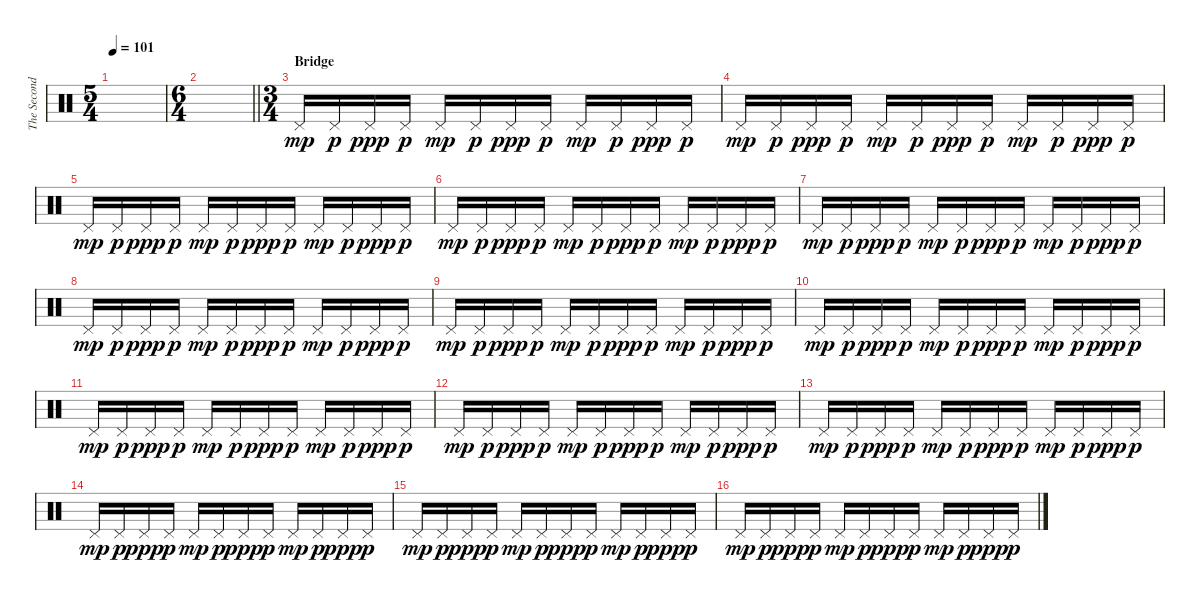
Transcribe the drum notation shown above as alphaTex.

\track ("The Second Drummer" "The Second") {instrument percussion}
\staff {score}
\articulation defaults
\ts (5 4)
\tempo 101
\clef neutral
\ks c
|
\ts (6 4)
\barLineRight lightlight
|
\ts (3 4)
\section ("" "Bridge")
"Pedal Hi-Hat (hit)".16{dy mp} "Pedal Hi-Hat (hit)".16{dy p} "Pedal Hi-Hat (hit)".16{dy ppp} "Pedal Hi-Hat (hit)".16{dy p} "Pedal Hi-Hat (hit)".16{dy mp} "Pedal Hi-Hat (hit)".16{dy p} "Pedal Hi-Hat (hit)".16{dy ppp} "Pedal Hi-Hat (hit)".16{dy p} "Pedal Hi-Hat (hit)".16{dy mp} "Pedal Hi-Hat (hit)".16{dy p} "Pedal Hi-Hat (hit)".16{dy ppp} "Pedal Hi-Hat (hit)".16{dy p} |
"Pedal Hi-Hat (hit)".16{dy mp} "Pedal Hi-Hat (hit)".16{dy p} "Pedal Hi-Hat (hit)".16{dy ppp} "Pedal Hi-Hat (hit)".16{dy p} "Pedal Hi-Hat (hit)".16{dy mp} "Pedal Hi-Hat (hit)".16{dy p} "Pedal Hi-Hat (hit)".16{dy ppp} "Pedal Hi-Hat (hit)".16{dy p} "Pedal Hi-Hat (hit)".16{dy mp} "Pedal Hi-Hat (hit)".16{dy p} "Pedal Hi-Hat (hit)".16{dy ppp} "Pedal Hi-Hat (hit)".16{dy p} |
"Pedal Hi-Hat (hit)".16{dy mp} "Pedal Hi-Hat (hit)".16{dy p} "Pedal Hi-Hat (hit)".16{dy ppp} "Pedal Hi-Hat (hit)".16{dy p} "Pedal Hi-Hat (hit)".16{dy mp} "Pedal Hi-Hat (hit)".16{dy p} "Pedal Hi-Hat (hit)".16{dy ppp} "Pedal Hi-Hat (hit)".16{dy p} "Pedal Hi-Hat (hit)".16{dy mp} "Pedal Hi-Hat (hit)".16{dy p} "Pedal Hi-Hat (hit)".16{dy ppp} "Pedal Hi-Hat (hit)".16{dy p} |
"Pedal Hi-Hat (hit)".16{dy mp} "Pedal Hi-Hat (hit)".16{dy p} "Pedal Hi-Hat (hit)".16{dy ppp} "Pedal Hi-Hat (hit)".16{dy p} "Pedal Hi-Hat (hit)".16{dy mp} "Pedal Hi-Hat (hit)".16{dy p} "Pedal Hi-Hat (hit)".16{dy ppp} "Pedal Hi-Hat (hit)".16{dy p} "Pedal Hi-Hat (hit)".16{dy mp} "Pedal Hi-Hat (hit)".16{dy p} "Pedal Hi-Hat (hit)".16{dy ppp} "Pedal Hi-Hat (hit)".16{dy p} |
"Pedal Hi-Hat (hit)".16{dy mp} "Pedal Hi-Hat (hit)".16{dy p} "Pedal Hi-Hat (hit)".16{dy ppp} "Pedal Hi-Hat (hit)".16{dy p} "Pedal Hi-Hat (hit)".16{dy mp} "Pedal Hi-Hat (hit)".16{dy p} "Pedal Hi-Hat (hit)".16{dy ppp} "Pedal Hi-Hat (hit)".16{dy p} "Pedal Hi-Hat (hit)".16{dy mp} "Pedal Hi-Hat (hit)".16{dy p} "Pedal Hi-Hat (hit)".16{dy ppp} "Pedal Hi-Hat (hit)".16{dy p} |
"Pedal Hi-Hat (hit)".16{dy mp} "Pedal Hi-Hat (hit)".16{dy p} "Pedal Hi-Hat (hit)".16{dy ppp} "Pedal Hi-Hat (hit)".16{dy p} "Pedal Hi-Hat (hit)".16{dy mp} "Pedal Hi-Hat (hit)".16{dy p} "Pedal Hi-Hat (hit)".16{dy ppp} "Pedal Hi-Hat (hit)".16{dy p} "Pedal Hi-Hat (hit)".16{dy mp} "Pedal Hi-Hat (hit)".16{dy p} "Pedal Hi-Hat (hit)".16{dy ppp} "Pedal Hi-Hat (hit)".16{dy p} |
"Pedal Hi-Hat (hit)".16{dy mp} "Pedal Hi-Hat (hit)".16{dy p} "Pedal Hi-Hat (hit)".16{dy ppp} "Pedal Hi-Hat (hit)".16{dy p} "Pedal Hi-Hat (hit)".16{dy mp} "Pedal Hi-Hat (hit)".16{dy p} "Pedal Hi-Hat (hit)".16{dy ppp} "Pedal Hi-Hat (hit)".16{dy p} "Pedal Hi-Hat (hit)".16{dy mp} "Pedal Hi-Hat (hit)".16{dy p} "Pedal Hi-Hat (hit)".16{dy ppp} "Pedal Hi-Hat (hit)".16{dy p} |
"Pedal Hi-Hat (hit)".16{dy mp} "Pedal Hi-Hat (hit)".16{dy p} "Pedal Hi-Hat (hit)".16{dy ppp} "Pedal Hi-Hat (hit)".16{dy p} "Pedal Hi-Hat (hit)".16{dy mp} "Pedal Hi-Hat (hit)".16{dy p} "Pedal Hi-Hat (hit)".16{dy ppp} "Pedal Hi-Hat (hit)".16{dy p} "Pedal Hi-Hat (hit)".16{dy mp} "Pedal Hi-Hat (hit)".16{dy p} "Pedal Hi-Hat (hit)".16{dy ppp} "Pedal Hi-Hat (hit)".16{dy p} |
"Pedal Hi-Hat (hit)".16{dy mp} "Pedal Hi-Hat (hit)".16{dy p} "Pedal Hi-Hat (hit)".16{dy ppp} "Pedal Hi-Hat (hit)".16{dy p} "Pedal Hi-Hat (hit)".16{dy mp} "Pedal Hi-Hat (hit)".16{dy p} "Pedal Hi-Hat (hit)".16{dy ppp} "Pedal Hi-Hat (hit)".16{dy p} "Pedal Hi-Hat (hit)".16{dy mp} "Pedal Hi-Hat (hit)".16{dy p} "Pedal Hi-Hat (hit)".16{dy ppp} "Pedal Hi-Hat (hit)".16{dy p} |
"Pedal Hi-Hat (hit)".16{dy mp} "Pedal Hi-Hat (hit)".16{dy p} "Pedal Hi-Hat (hit)".16{dy ppp} "Pedal Hi-Hat (hit)".16{dy p} "Pedal Hi-Hat (hit)".16{dy mp} "Pedal Hi-Hat (hit)".16{dy p} "Pedal Hi-Hat (hit)".16{dy ppp} "Pedal Hi-Hat (hit)".16{dy p} "Pedal Hi-Hat (hit)".16{dy mp} "Pedal Hi-Hat (hit)".16{dy p} "Pedal Hi-Hat (hit)".16{dy ppp} "Pedal Hi-Hat (hit)".16{dy p} |
"Pedal Hi-Hat (hit)".16{dy mp} "Pedal Hi-Hat (hit)".16{dy p} "Pedal Hi-Hat (hit)".16{dy ppp} "Pedal Hi-Hat (hit)".16{dy p} "Pedal Hi-Hat (hit)".16{dy mp} "Pedal Hi-Hat (hit)".16{dy p} "Pedal Hi-Hat (hit)".16{dy ppp} "Pedal Hi-Hat (hit)".16{dy p} "Pedal Hi-Hat (hit)".16{dy mp} "Pedal Hi-Hat (hit)".16{dy p} "Pedal Hi-Hat (hit)".16{dy ppp} "Pedal Hi-Hat (hit)".16{dy p} |
"Pedal Hi-Hat (hit)".16{dy mp} "Pedal Hi-Hat (hit)".16{dy p} "Pedal Hi-Hat (hit)".16{dy ppp} "Pedal Hi-Hat (hit)".16{dy p} "Pedal Hi-Hat (hit)".16{dy mp} "Pedal Hi-Hat (hit)".16{dy p} "Pedal Hi-Hat (hit)".16{dy ppp} "Pedal Hi-Hat (hit)".16{dy p} "Pedal Hi-Hat (hit)".16{dy mp} "Pedal Hi-Hat (hit)".16{dy p} "Pedal Hi-Hat (hit)".16{dy ppp} "Pedal Hi-Hat (hit)".16{dy p} |
"Pedal Hi-Hat (hit)".16{dy mp} "Pedal Hi-Hat (hit)".16{dy p} "Pedal Hi-Hat (hit)".16{dy ppp} "Pedal Hi-Hat (hit)".16{dy p} "Pedal Hi-Hat (hit)".16{dy mp} "Pedal Hi-Hat (hit)".16{dy p} "Pedal Hi-Hat (hit)".16{dy ppp} "Pedal Hi-Hat (hit)".16{dy p} "Pedal Hi-Hat (hit)".16{dy mp} "Pedal Hi-Hat (hit)".16{dy p} "Pedal Hi-Hat (hit)".16{dy ppp} "Pedal Hi-Hat (hit)".16{dy p} |
"Pedal Hi-Hat (hit)".16{dy mp} "Pedal Hi-Hat (hit)".16{dy p} "Pedal Hi-Hat (hit)".16{dy ppp} "Pedal Hi-Hat (hit)".16{dy p} "Pedal Hi-Hat (hit)".16{dy mp} "Pedal Hi-Hat (hit)".16{dy p} "Pedal Hi-Hat (hit)".16{dy ppp} "Pedal Hi-Hat (hit)".16{dy p} "Pedal Hi-Hat (hit)".16{dy mp} "Pedal Hi-Hat (hit)".16{dy p} "Pedal Hi-Hat (hit)".16{dy ppp} "Pedal Hi-Hat (hit)".16{dy p}
